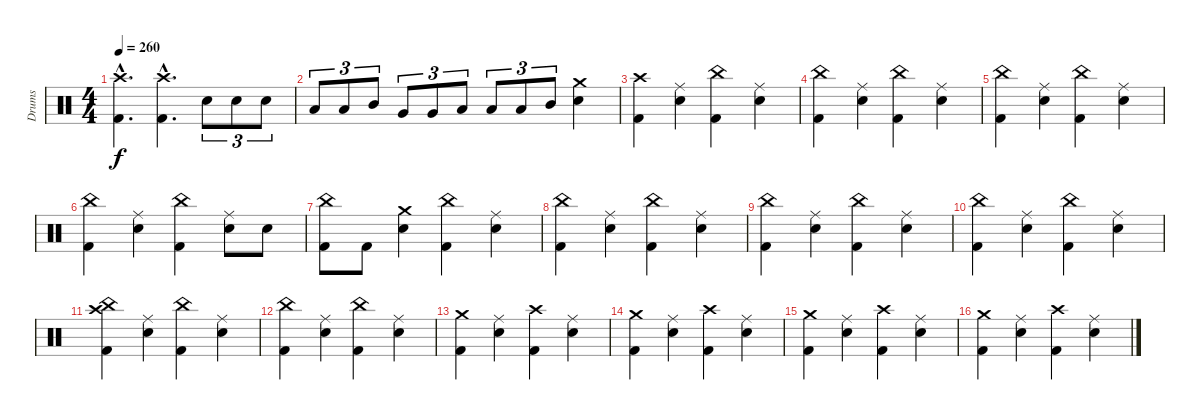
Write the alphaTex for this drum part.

\track ("Drums" "Drums") {instrument percussion}
\staff {score}
\articulation defaults
\ts (4 4)
\tempo 260
\clef neutral
\ks c
("Crash high (hit)"{hac} "Kick (hit) 2"{hac}).4{d dy f} ("Crash high (hit)"{hac} "Kick (hit) 2"{hac}).4{d} "Electric Snare (hit)".8{tu (3 2)} "Electric Snare (hit)".8{tu (3 2)} "Electric Snare (hit)".8{tu (3 2)} |
"Low Tom (hit)".8{tu (3 2)} "Low Tom (hit)".8{tu (3 2)} "Mid Tom (hit)".8{tu (3 2)} "Very Low Tom (hit)".8{tu (3 2)} "Very Low Tom (hit)".8{tu (3 2)} "Low Tom (hit)".8{tu (3 2)} "Low Tom (hit)".8{tu (3 2)} "Low Tom (hit)".8{tu (3 2)} "Mid Tom (hit)".8{tu (3 2)} ("Crash medium (hit)" "Electric Snare (hit)").4 |
("Crash high (hit)" "Kick (hit) 2").4 ("Ride (middle)" "Electric Snare (hit)").4 ("China (hit)" "Kick (hit) 2").4 ("Ride (middle)" "Electric Snare (hit)").4 |
("China (hit)" "Kick (hit) 2").4 ("Ride (middle)" "Electric Snare (hit)").4 ("China (hit)" "Kick (hit) 2").4 ("Ride (middle)" "Electric Snare (hit)").4 |
("China (hit)" "Kick (hit) 2").4 ("Ride (middle)" "Electric Snare (hit)").4 ("China (hit)" "Kick (hit) 2").4 ("Ride (middle)" "Electric Snare (hit)").4 |
("China (hit)" "Kick (hit) 2").4 ("Ride (middle)" "Electric Snare (hit)").4 ("China (hit)" "Kick (hit) 2").4 ("Ride (middle)" "Electric Snare (hit)").8 "Electric Snare (hit)".8 |
("China (hit)" "Kick (hit) 2").8 "Kick (hit) 2".8 ("Crash medium (hit)" "Electric Snare (hit)").4 ("China (hit)" "Kick (hit) 2").4 ("Ride (middle)" "Electric Snare (hit)").4 |
("China (hit)" "Kick (hit) 2").4 ("Ride (middle)" "Electric Snare (hit)").4 ("China (hit)" "Kick (hit) 2").4 ("Ride (middle)" "Electric Snare (hit)").4 |
("China (hit)" "Kick (hit) 2").4 ("Ride (middle)" "Electric Snare (hit)").4 ("China (hit)" "Kick (hit) 2").4 ("Ride (middle)" "Electric Snare (hit)").4 |
("China (hit)" "Kick (hit) 2").4 ("Ride (middle)" "Electric Snare (hit)").4 ("China (hit)" "Kick (hit) 2").4 ("Ride (middle)" "Electric Snare (hit)").4 |
("Crash high (hit)" "China (hit)" "Kick (hit) 2").4 ("Ride (middle)" "Electric Snare (hit)").4 ("China (hit)" "Kick (hit) 2").4 ("Ride (middle)" "Electric Snare (hit)").4 |
("China (hit)" "Kick (hit) 2").4 ("Ride (middle)" "Electric Snare (hit)").4 ("China (hit)" "Kick (hit) 2").4 ("Ride (middle)" "Electric Snare (hit)").4 |
("Crash medium (hit)" "Kick (hit) 2").4 ("Ride (middle)" "Electric Snare (hit)").4 ("Crash high (hit)" "Kick (hit) 2").4 ("Ride (middle)" "Electric Snare (hit)").4 |
("Crash medium (hit)" "Kick (hit) 2").4 ("Ride (middle)" "Electric Snare (hit)").4 ("Crash high (hit)" "Kick (hit) 2").4 ("Ride (middle)" "Electric Snare (hit)").4 |
("Crash medium (hit)" "Kick (hit) 2").4 ("Ride (middle)" "Electric Snare (hit)").4 ("Crash high (hit)" "Kick (hit) 2").4 ("Ride (middle)" "Electric Snare (hit)").4 |
("Crash medium (hit)" "Kick (hit) 2").4 ("Ride (middle)" "Electric Snare (hit)").4 ("Crash high (hit)" "Kick (hit) 2").4 ("Ride (middle)" "Electric Snare (hit)").4
